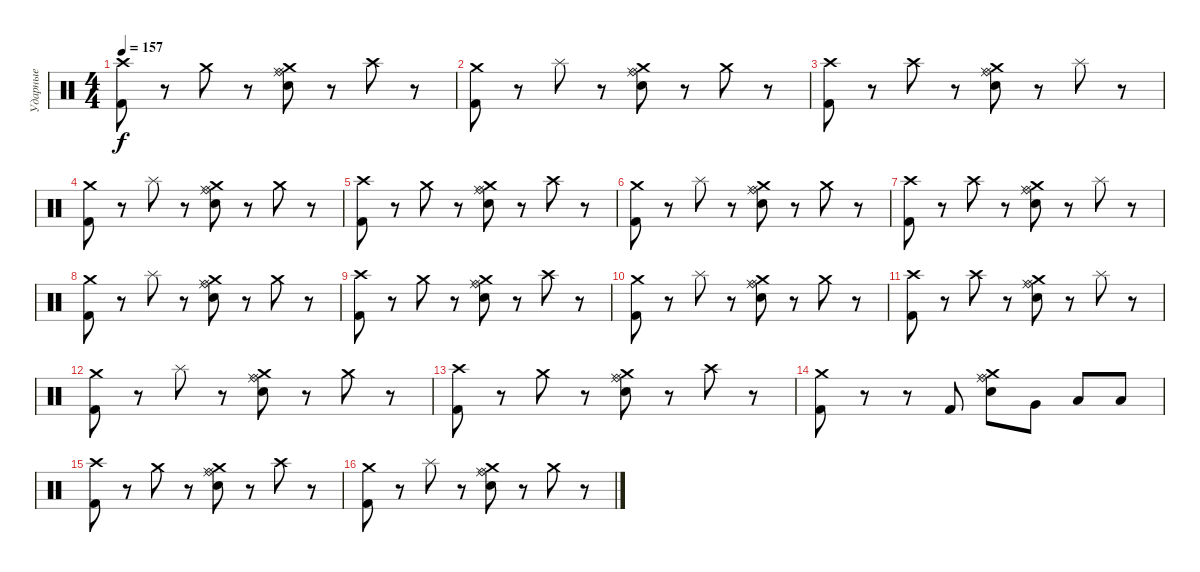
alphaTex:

\track ("Ударные" "Ударные") {instrument percussion}
\staff {score}
\articulation defaults
\ts (4 4)
\tempo 157
\clef neutral
\ks c
("Crash high (hit)" "Kick (hit) 2").8{dy f} r.8 "Crash medium (hit)".8 r.8 ("Crash medium (hit)" "Ride (bell)" "Electric Snare (hit)" "Ride (middle)").8 r.8 "Crash high (hit)".8 r.8 |
("Crash medium (hit)" "Kick (hit) 2").8 r.8 "Splash (hit)".8 r.8 ("Crash medium (hit)" "Ride (bell)" "Electric Snare (hit)" "Ride (middle)").8 r.8 "Crash medium (hit)".8 r.8 |
("Crash high (hit)" "Kick (hit) 2").8 r.8 "Crash high (hit)".8 r.8 ("Crash medium (hit)" "Ride (bell)" "Electric Snare (hit)" "Ride (middle)").8 r.8 "Splash (hit)".8 r.8 |
("Crash medium (hit)" "Kick (hit) 2").8 r.8 "Splash (hit)".8 r.8 ("Crash medium (hit)" "Ride (bell)" "Electric Snare (hit)" "Ride (middle)").8 r.8 "Crash medium (hit)".8 r.8 |
("Crash high (hit)" "Kick (hit) 2").8 r.8 "Crash medium (hit)".8 r.8 ("Crash medium (hit)" "Ride (bell)" "Electric Snare (hit)" "Ride (middle)").8 r.8 "Crash high (hit)".8 r.8 |
("Crash medium (hit)" "Kick (hit) 2").8 r.8 "Splash (hit)".8 r.8 ("Crash medium (hit)" "Ride (bell)" "Electric Snare (hit)" "Ride (middle)").8 r.8 "Crash medium (hit)".8 r.8 |
("Crash high (hit)" "Kick (hit) 2").8 r.8 "Crash high (hit)".8 r.8 ("Crash medium (hit)" "Ride (bell)" "Electric Snare (hit)" "Ride (middle)").8 r.8 "Splash (hit)".8 r.8 |
("Crash medium (hit)" "Kick (hit) 2").8 r.8 "Splash (hit)".8 r.8 ("Crash medium (hit)" "Ride (bell)" "Electric Snare (hit)" "Ride (middle)").8 r.8 "Crash medium (hit)".8 r.8 |
("Crash high (hit)" "Kick (hit) 2").8 r.8 "Crash medium (hit)".8 r.8 ("Crash medium (hit)" "Ride (bell)" "Electric Snare (hit)" "Ride (middle)").8 r.8 "Crash high (hit)".8 r.8 |
("Crash medium (hit)" "Kick (hit) 2").8 r.8 "Splash (hit)".8 r.8 ("Crash medium (hit)" "Ride (bell)" "Electric Snare (hit)" "Ride (middle)").8 r.8 "Crash medium (hit)".8 r.8 |
("Crash high (hit)" "Kick (hit) 2").8 r.8 "Crash high (hit)".8 r.8 ("Crash medium (hit)" "Ride (bell)" "Electric Snare (hit)" "Ride (middle)").8 r.8 "Splash (hit)".8 r.8 |
("Crash medium (hit)" "Kick (hit) 2").8 r.8 "Splash (hit)".8 r.8 ("Crash medium (hit)" "Ride (bell)" "Electric Snare (hit)" "Ride (middle)").8 r.8 "Crash medium (hit)".8 r.8 |
("Crash high (hit)" "Kick (hit) 2").8 r.8 "Crash medium (hit)".8 r.8 ("Crash medium (hit)" "Ride (bell)" "Electric Snare (hit)" "Ride (middle)").8 r.8 "Crash high (hit)".8 r.8 |
("Crash medium (hit)" "Kick (hit) 2").8 r.8 r.8 "Kick (hit) 2".8 ("Crash medium (hit)" "Ride (bell)" "Electric Snare (hit)" "Ride (middle)").8 "Very Low Tom (hit)".8 "Low Tom (hit)".8 "Low Floor Tom (hit)".8 |
("Crash high (hit)" "Kick (hit) 2").8 r.8 "Crash medium (hit)".8 r.8 ("Crash medium (hit)" "Ride (bell)" "Electric Snare (hit)" "Ride (middle)").8 r.8 "Crash high (hit)".8 r.8 |
("Crash medium (hit)" "Kick (hit) 2").8 r.8 "Splash (hit)".8 r.8 ("Crash medium (hit)" "Ride (bell)" "Electric Snare (hit)" "Ride (middle)").8 r.8 "Crash medium (hit)".8 r.8
